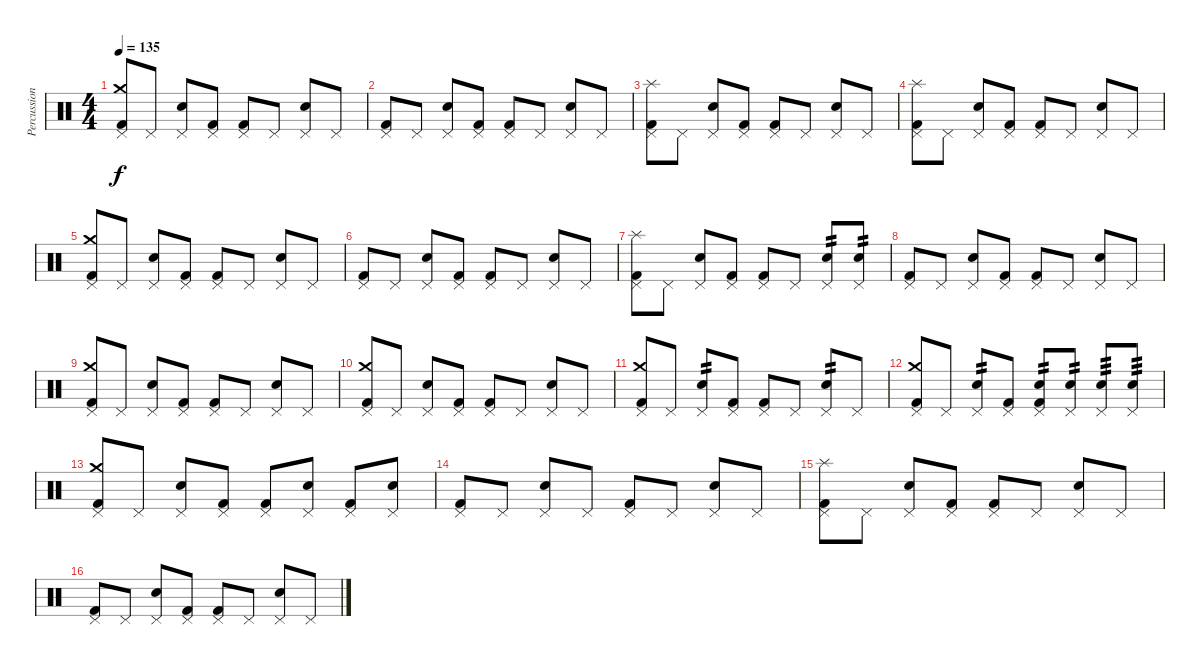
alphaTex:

\track ("Percussion" "Percussion") {instrument percussion}
\staff {score}
\articulation defaults
\ts (4 4)
\tempo 135
\clef neutral
\ks c
("Kick (hit) 2" "Crash medium (hit)" "Pedal Hi-Hat (hit)").8{dy f} "Pedal Hi-Hat (hit)".8 ("Snare (hit) 2" "Pedal Hi-Hat (hit)").8 ("Kick (hit) 2" "Pedal Hi-Hat (hit)").8 ("Kick (hit) 2" "Pedal Hi-Hat (hit)").8 "Pedal Hi-Hat (hit)".8 ("Snare (hit) 2" "Pedal Hi-Hat (hit)").8 "Pedal Hi-Hat (hit)".8 |
("Kick (hit) 2" "Pedal Hi-Hat (hit)").8 "Pedal Hi-Hat (hit)".8 ("Snare (hit) 2" "Pedal Hi-Hat (hit)").8 ("Kick (hit) 2" "Pedal Hi-Hat (hit)").8 ("Kick (hit) 2" "Pedal Hi-Hat (hit)").8 "Pedal Hi-Hat (hit)".8 ("Snare (hit) 2" "Pedal Hi-Hat (hit)").8 "Pedal Hi-Hat (hit)".8 |
("Kick (hit) 2" "Splash (hit)" "Pedal Hi-Hat (hit)").8 "Pedal Hi-Hat (hit)".8 ("Snare (hit) 2" "Pedal Hi-Hat (hit)").8 ("Kick (hit) 2" "Pedal Hi-Hat (hit)").8 ("Kick (hit) 2" "Pedal Hi-Hat (hit)").8 "Pedal Hi-Hat (hit)".8 ("Snare (hit) 2" "Pedal Hi-Hat (hit)").8 "Pedal Hi-Hat (hit)".8 |
("Kick (hit) 2" "Splash (hit)" "Pedal Hi-Hat (hit)").8 "Pedal Hi-Hat (hit)".8 ("Snare (hit) 2" "Pedal Hi-Hat (hit)").8 ("Kick (hit) 2" "Pedal Hi-Hat (hit)").8 ("Kick (hit) 2" "Pedal Hi-Hat (hit)").8 "Pedal Hi-Hat (hit)".8 ("Snare (hit) 2" "Pedal Hi-Hat (hit)").8 "Pedal Hi-Hat (hit)".8 |
("Kick (hit) 2" "Crash medium (hit)" "Pedal Hi-Hat (hit)").8 "Pedal Hi-Hat (hit)".8 ("Snare (hit) 2" "Pedal Hi-Hat (hit)").8 ("Kick (hit) 2" "Pedal Hi-Hat (hit)").8 ("Kick (hit) 2" "Pedal Hi-Hat (hit)").8 "Pedal Hi-Hat (hit)".8 ("Snare (hit) 2" "Pedal Hi-Hat (hit)").8 "Pedal Hi-Hat (hit)".8 |
("Kick (hit) 2" "Pedal Hi-Hat (hit)").8 "Pedal Hi-Hat (hit)".8 ("Snare (hit) 2" "Pedal Hi-Hat (hit)").8 ("Kick (hit) 2" "Pedal Hi-Hat (hit)").8 ("Kick (hit) 2" "Pedal Hi-Hat (hit)").8 "Pedal Hi-Hat (hit)".8 ("Snare (hit) 2" "Pedal Hi-Hat (hit)").8 "Pedal Hi-Hat (hit)".8 |
("Kick (hit) 2" "Splash (hit)" "Pedal Hi-Hat (hit)").8 "Pedal Hi-Hat (hit)".8 ("Snare (hit) 2" "Pedal Hi-Hat (hit)").8 ("Kick (hit) 2" "Pedal Hi-Hat (hit)").8 ("Kick (hit) 2" "Pedal Hi-Hat (hit)").8 "Pedal Hi-Hat (hit)".8 ("Snare (hit) 2" "Pedal Hi-Hat (hit)").8{tp 2} ("Snare (hit) 2" "Pedal Hi-Hat (hit)").8{tp 2} |
("Kick (hit) 2" "Pedal Hi-Hat (hit)").8 "Pedal Hi-Hat (hit)".8 ("Snare (hit) 2" "Pedal Hi-Hat (hit)").8 ("Kick (hit) 2" "Pedal Hi-Hat (hit)").8 ("Kick (hit) 2" "Pedal Hi-Hat (hit)").8 "Pedal Hi-Hat (hit)".8 ("Snare (hit) 2" "Pedal Hi-Hat (hit)").8 "Pedal Hi-Hat (hit)".8 |
("Kick (hit) 2" "Crash medium (hit)" "Pedal Hi-Hat (hit)").8 "Pedal Hi-Hat (hit)".8 ("Snare (hit) 2" "Pedal Hi-Hat (hit)").8 ("Kick (hit) 2" "Pedal Hi-Hat (hit)").8 ("Kick (hit) 2" "Pedal Hi-Hat (hit)").8 "Pedal Hi-Hat (hit)".8 ("Snare (hit) 2" "Pedal Hi-Hat (hit)").8 "Pedal Hi-Hat (hit)".8 |
("Kick (hit) 2" "Crash medium (hit)" "Pedal Hi-Hat (hit)").8 "Pedal Hi-Hat (hit)".8 ("Snare (hit) 2" "Pedal Hi-Hat (hit)").8 ("Kick (hit) 2" "Pedal Hi-Hat (hit)").8 ("Kick (hit) 2" "Pedal Hi-Hat (hit)").8 "Pedal Hi-Hat (hit)".8 ("Snare (hit) 2" "Pedal Hi-Hat (hit)").8 "Pedal Hi-Hat (hit)".8 |
("Kick (hit) 2" "Crash medium (hit)" "Pedal Hi-Hat (hit)").8 "Pedal Hi-Hat (hit)".8 ("Snare (hit) 2" "Pedal Hi-Hat (hit)").8{tp 2} ("Kick (hit) 2" "Pedal Hi-Hat (hit)").8 ("Kick (hit) 2" "Pedal Hi-Hat (hit)").8 "Pedal Hi-Hat (hit)".8 ("Snare (hit) 2" "Pedal Hi-Hat (hit)").8{tp 2} "Pedal Hi-Hat (hit)".8 |
("Kick (hit) 2" "Crash medium (hit)" "Pedal Hi-Hat (hit)").8 "Pedal Hi-Hat (hit)".8 ("Snare (hit) 2" "Pedal Hi-Hat (hit)").8{tp 2} ("Kick (hit) 2" "Pedal Hi-Hat (hit)").8 ("Kick (hit) 2" "Snare (hit) 2" "Pedal Hi-Hat (hit)").8{tp 2} ("Snare (hit) 2" "Pedal Hi-Hat (hit)").8{tp 2} ("Snare (hit) 2" "Pedal Hi-Hat (hit)").8{tp 3} ("Snare (hit) 2" "Pedal Hi-Hat (hit)").8{tp 3} |
("Kick (hit) 2" "Pedal Hi-Hat (hit)" "Crash medium (hit)").8 "Pedal Hi-Hat (hit)".8 ("Snare (hit) 2" "Pedal Hi-Hat (hit)").8 ("Kick (hit) 2" "Pedal Hi-Hat (hit)").8 ("Kick (hit) 2" "Pedal Hi-Hat (hit)").8 ("Snare (hit) 2" "Pedal Hi-Hat (hit)").8 ("Kick (hit) 2" "Pedal Hi-Hat (hit)").8 ("Snare (hit) 2" "Pedal Hi-Hat (hit)").8 |
("Kick (hit) 2" "Pedal Hi-Hat (hit)").8 "Pedal Hi-Hat (hit)".8 ("Snare (hit) 2" "Pedal Hi-Hat (hit)").8 "Pedal Hi-Hat (hit)".8 ("Kick (hit) 2" "Pedal Hi-Hat (hit)").8 "Pedal Hi-Hat (hit)".8 ("Snare (hit) 2" "Pedal Hi-Hat (hit)").8 "Pedal Hi-Hat (hit)".8 |
("Kick (hit) 2" "Splash (hit)" "Pedal Hi-Hat (hit)").8 "Pedal Hi-Hat (hit)".8 ("Snare (hit) 2" "Pedal Hi-Hat (hit)").8 ("Kick (hit) 2" "Pedal Hi-Hat (hit)").8 ("Kick (hit) 2" "Pedal Hi-Hat (hit)").8 "Pedal Hi-Hat (hit)".8 ("Snare (hit) 2" "Pedal Hi-Hat (hit)").8 "Pedal Hi-Hat (hit)".8 |
("Kick (hit) 2" "Pedal Hi-Hat (hit)").8 "Pedal Hi-Hat (hit)".8 ("Snare (hit) 2" "Pedal Hi-Hat (hit)").8 ("Kick (hit) 2" "Pedal Hi-Hat (hit)").8 ("Kick (hit) 2" "Pedal Hi-Hat (hit)").8 "Pedal Hi-Hat (hit)".8 ("Snare (hit) 2" "Pedal Hi-Hat (hit)").8 "Pedal Hi-Hat (hit)".8
